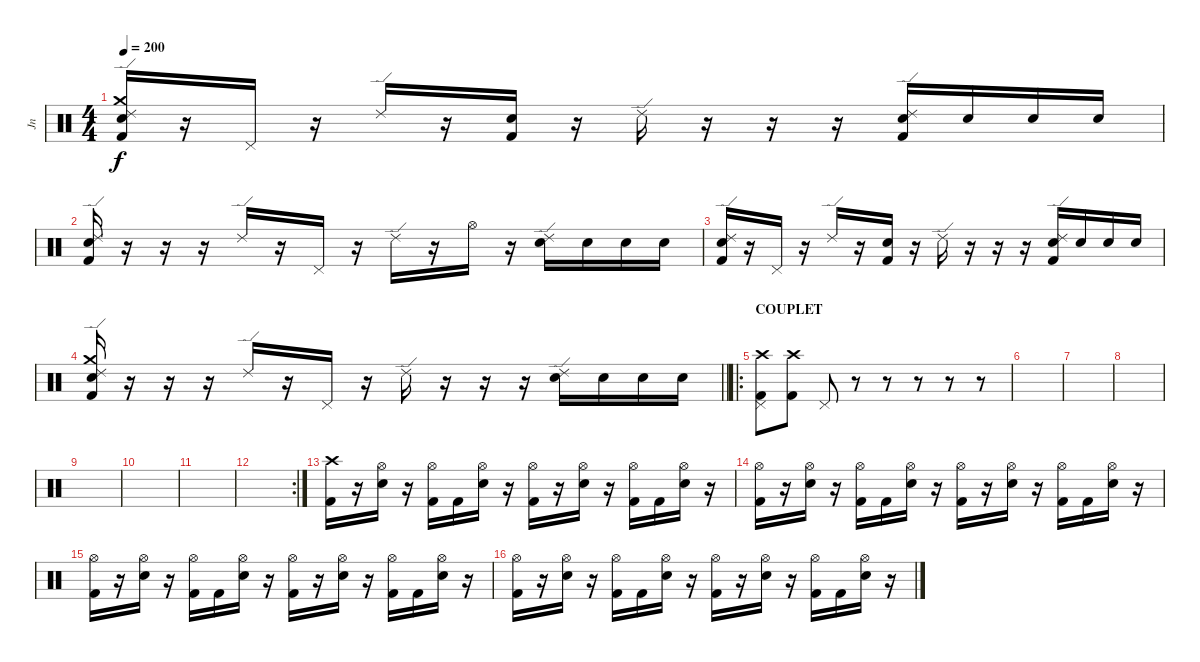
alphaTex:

\track ("Jn" "Jn") {instrument percussion}
\staff {score}
\articulation defaults
\ts (4 4)
\tempo 200
\clef neutral
\ks c
("Ride (edge) 2" "Crash medium (hit)" "Electric Snare (hit)" "Kick (hit) 2").16{dy f} r.16 "Pedal Hi-Hat (hit)".16 r.16 "Ride (edge) 2".16 r.16 ("Electric Snare (hit)" "Kick (hit) 2").16 r.16 "Ride (edge) 2".16 r.16 r.16 r.16 ("Ride (edge) 2" "Electric Snare (hit)" "Kick (hit) 2").16 "Electric Snare (hit)".16 "Electric Snare (hit)".16 "Electric Snare (hit)".16 |
("Ride (edge) 2" "Electric Snare (hit)" "Kick (hit) 2").16 r.16 r.16 r.16 "Ride (edge) 2".16 r.16 "Pedal Hi-Hat (hit)".16 r.16 "Ride (edge) 2".16 r.16 "Hi-Hat (open)".16 r.16 ("Ride (edge) 2" "Electric Snare (hit)").16 "Electric Snare (hit)".16 "Electric Snare (hit)".16 "Electric Snare (hit)".16 |
("Ride (edge) 2" "Electric Snare (hit)" "Kick (hit) 2").16 r.16 "Pedal Hi-Hat (hit)".16 r.16 "Ride (edge) 2".16 r.16 ("Electric Snare (hit)" "Kick (hit) 2").16 r.16 "Ride (edge) 2".16 r.16 r.16 r.16 ("Ride (edge) 2" "Electric Snare (hit)" "Kick (hit) 2").16 "Electric Snare (hit)".16 "Electric Snare (hit)".16 "Electric Snare (hit)".16 |
\barLineRight lightlight
("Ride (edge) 2" "Crash medium (hit)" "Electric Snare (hit)" "Kick (hit) 2").16 r.16 r.16 r.16 "Ride (edge) 2".16 r.16 "Pedal Hi-Hat (hit)".16 r.16 "Ride (edge) 2".16 r.16 r.16 r.16 ("Ride (edge) 2" "Electric Snare (hit)").16 "Electric Snare (hit)".16 "Electric Snare (hit)".16 "Electric Snare (hit)".16 |
\ro
\section ("" "COUPLET")
("Crash high (hit)" "Pedal Hi-Hat (hit)" "Kick (hit) 2").8 ("Crash high (hit)" "Kick (hit) 2").8 "Pedal Hi-Hat (hit)".8 r.8 r.8 r.8 r.8 r.8 |
|
|
|
|
|
|
\rc 2
|
("Crash high (hit)" "Kick (hit) 2").16 r.16 ("Hi-Hat (open)" "Electric Snare (hit)").16 r.16 ("Hi-Hat (open)" "Kick (hit) 2").16 "Kick (hit) 2".16 ("Hi-Hat (open)" "Electric Snare (hit)").16 r.16 ("Hi-Hat (open)" "Kick (hit) 2").16 r.16 ("Hi-Hat (open)" "Electric Snare (hit)").16 r.16 ("Hi-Hat (open)" "Kick (hit) 2").16 "Kick (hit) 2".16 ("Hi-Hat (open)" "Electric Snare (hit)").16 r.16 |
("Hi-Hat (open)" "Kick (hit) 2").16 r.16 ("Hi-Hat (open)" "Electric Snare (hit)").16 r.16 ("Hi-Hat (open)" "Kick (hit) 2").16 "Kick (hit) 2".16 ("Hi-Hat (open)" "Electric Snare (hit)").16 r.16 ("Hi-Hat (open)" "Kick (hit) 2").16 r.16 ("Hi-Hat (open)" "Electric Snare (hit)").16 r.16 ("Hi-Hat (open)" "Kick (hit) 2").16 "Kick (hit) 2".16 ("Hi-Hat (open)" "Electric Snare (hit)").16 r.16 |
("Hi-Hat (open)" "Kick (hit) 2").16 r.16 ("Hi-Hat (open)" "Electric Snare (hit)").16 r.16 ("Hi-Hat (open)" "Kick (hit) 2").16 "Kick (hit) 2".16 ("Hi-Hat (open)" "Electric Snare (hit)").16 r.16 ("Hi-Hat (open)" "Kick (hit) 2").16 r.16 ("Hi-Hat (open)" "Electric Snare (hit)").16 r.16 ("Hi-Hat (open)" "Kick (hit) 2").16 "Kick (hit) 2".16 ("Hi-Hat (open)" "Electric Snare (hit)").16 r.16 |
("Hi-Hat (open)" "Kick (hit) 2").16 r.16 ("Hi-Hat (open)" "Electric Snare (hit)").16 r.16 ("Hi-Hat (open)" "Kick (hit) 2").16 "Kick (hit) 2".16 ("Hi-Hat (open)" "Electric Snare (hit)").16 r.16 ("Hi-Hat (open)" "Kick (hit) 2").16 r.16 ("Hi-Hat (open)" "Electric Snare (hit)").16 r.16 ("Hi-Hat (open)" "Kick (hit) 2").16 "Kick (hit) 2".16 ("Hi-Hat (open)" "Electric Snare (hit)").16 r.16
